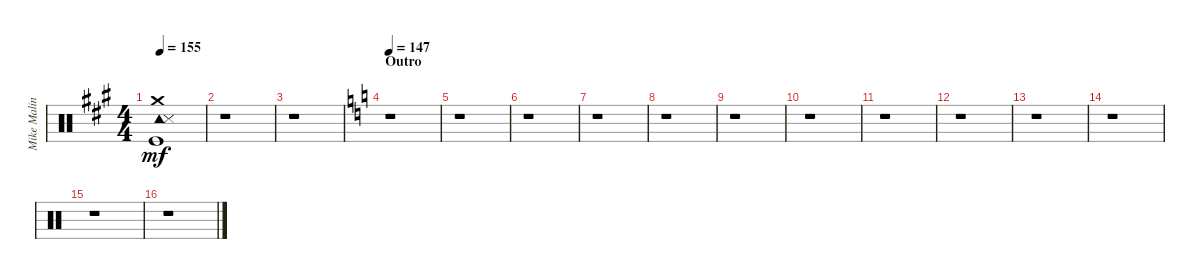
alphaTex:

\track ("Mike Malinin - Drums" "Mike Malin") {instrument percussion}
\staff {score}
\articulation defaults
\ts (4 4)
\tempo 155
\clef neutral
\ks a
("Tambourine (hit)" "Crash medium (hit)" "Metronome (hit)" "Kick (hit)").1{dy mf} |
r.1 |
r.1 |
\section ("" "Outro")
\tempo 147
\ks c
r.1 |
r.1 |
r.1 |
r.1 |
r.1 |
r.1 |
r.1 |
r.1 |
r.1 |
r.1 |
r.1 |
r.1 |
r.1
